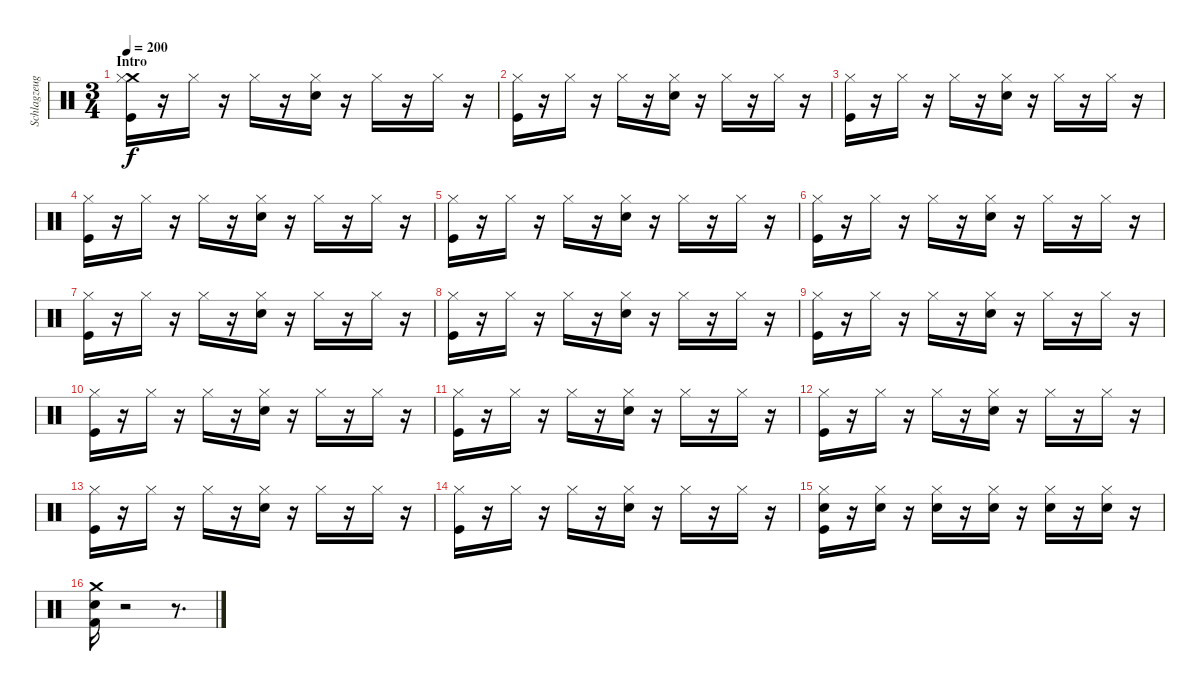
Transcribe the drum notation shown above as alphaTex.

\track ("Schlagzeug - Bela B." "Schlagzeug") {instrument percussion}
\staff {score}
\articulation defaults
\ts (3 4)
\section ("" "Intro")
\tempo 200
\clef neutral
\ks c
("Kick (hit)" "Crash medium (hit)" "Hi-Hat (closed)").16{dy f} r.16 "Hi-Hat (closed)".16 r.16 "Hi-Hat (closed)".16 r.16 ("Hi-Hat (closed)" "Electric Snare (hit)").16 r.16 "Hi-Hat (closed)".16 r.16 "Hi-Hat (closed)".16 r.16 |
("Kick (hit)" "Hi-Hat (closed)").16 r.16 "Hi-Hat (closed)".16 r.16 "Hi-Hat (closed)".16 r.16 ("Hi-Hat (closed)" "Electric Snare (hit)").16 r.16 "Hi-Hat (closed)".16 r.16 "Hi-Hat (closed)".16 r.16 |
("Kick (hit)" "Hi-Hat (closed)").16 r.16 "Hi-Hat (closed)".16 r.16 "Hi-Hat (closed)".16 r.16 ("Hi-Hat (closed)" "Electric Snare (hit)").16 r.16 "Hi-Hat (closed)".16 r.16 "Hi-Hat (closed)".16 r.16 |
("Kick (hit)" "Hi-Hat (closed)").16 r.16 "Hi-Hat (closed)".16 r.16 "Hi-Hat (closed)".16 r.16 ("Hi-Hat (closed)" "Electric Snare (hit)").16 r.16 "Hi-Hat (closed)".16 r.16 "Hi-Hat (closed)".16 r.16 |
("Kick (hit)" "Hi-Hat (closed)").16 r.16 "Hi-Hat (closed)".16 r.16 "Hi-Hat (closed)".16 r.16 ("Hi-Hat (closed)" "Electric Snare (hit)").16 r.16 "Hi-Hat (closed)".16 r.16 "Hi-Hat (closed)".16 r.16 |
("Kick (hit)" "Hi-Hat (closed)").16 r.16 "Hi-Hat (closed)".16 r.16 "Hi-Hat (closed)".16 r.16 ("Hi-Hat (closed)" "Electric Snare (hit)").16 r.16 "Hi-Hat (closed)".16 r.16 "Hi-Hat (closed)".16 r.16 |
("Kick (hit)" "Hi-Hat (closed)").16 r.16 "Hi-Hat (closed)".16 r.16 "Hi-Hat (closed)".16 r.16 ("Hi-Hat (closed)" "Electric Snare (hit)").16 r.16 "Hi-Hat (closed)".16 r.16 "Hi-Hat (closed)".16 r.16 |
("Kick (hit)" "Hi-Hat (closed)").16 r.16 "Hi-Hat (closed)".16 r.16 "Hi-Hat (closed)".16 r.16 ("Hi-Hat (closed)" "Electric Snare (hit)").16 r.16 "Hi-Hat (closed)".16 r.16 "Hi-Hat (closed)".16 r.16 |
("Kick (hit)" "Hi-Hat (closed)").16 r.16 "Hi-Hat (closed)".16 r.16 "Hi-Hat (closed)".16 r.16 ("Hi-Hat (closed)" "Electric Snare (hit)").16 r.16 "Hi-Hat (closed)".16 r.16 "Hi-Hat (closed)".16 r.16 |
("Kick (hit)" "Hi-Hat (closed)").16 r.16 "Hi-Hat (closed)".16 r.16 "Hi-Hat (closed)".16 r.16 ("Hi-Hat (closed)" "Electric Snare (hit)").16 r.16 "Hi-Hat (closed)".16 r.16 "Hi-Hat (closed)".16 r.16 |
("Kick (hit)" "Hi-Hat (closed)").16 r.16 "Hi-Hat (closed)".16 r.16 "Hi-Hat (closed)".16 r.16 ("Hi-Hat (closed)" "Electric Snare (hit)").16 r.16 "Hi-Hat (closed)".16 r.16 "Hi-Hat (closed)".16 r.16 |
("Kick (hit)" "Hi-Hat (closed)").16 r.16 "Hi-Hat (closed)".16 r.16 "Hi-Hat (closed)".16 r.16 ("Hi-Hat (closed)" "Electric Snare (hit)").16 r.16 "Hi-Hat (closed)".16 r.16 "Hi-Hat (closed)".16 r.16 |
("Kick (hit)" "Hi-Hat (closed)").16 r.16 "Hi-Hat (closed)".16 r.16 "Hi-Hat (closed)".16 r.16 ("Hi-Hat (closed)" "Electric Snare (hit)").16 r.16 "Hi-Hat (closed)".16 r.16 "Hi-Hat (closed)".16 r.16 |
("Kick (hit)" "Hi-Hat (closed)").16 r.16 "Hi-Hat (closed)".16 r.16 "Hi-Hat (closed)".16 r.16 ("Hi-Hat (closed)" "Electric Snare (hit)").16 r.16 "Hi-Hat (closed)".16 r.16 "Hi-Hat (closed)".16 r.16 |
("Kick (hit)" "Hi-Hat (closed)" "Electric Snare (hit)").16 r.16 ("Hi-Hat (closed)" "Electric Snare (hit)").16 r.16 ("Hi-Hat (closed)" "Electric Snare (hit)").16 r.16 ("Hi-Hat (closed)" "Electric Snare (hit)").16 r.16 ("Hi-Hat (closed)" "Electric Snare (hit)").16 r.16 ("Hi-Hat (closed)" "Electric Snare (hit)").16 r.16 |
("Kick (hit) 2" "Electric Snare (hit)" "Crash medium (hit)").16 r.2 r.8{d}
